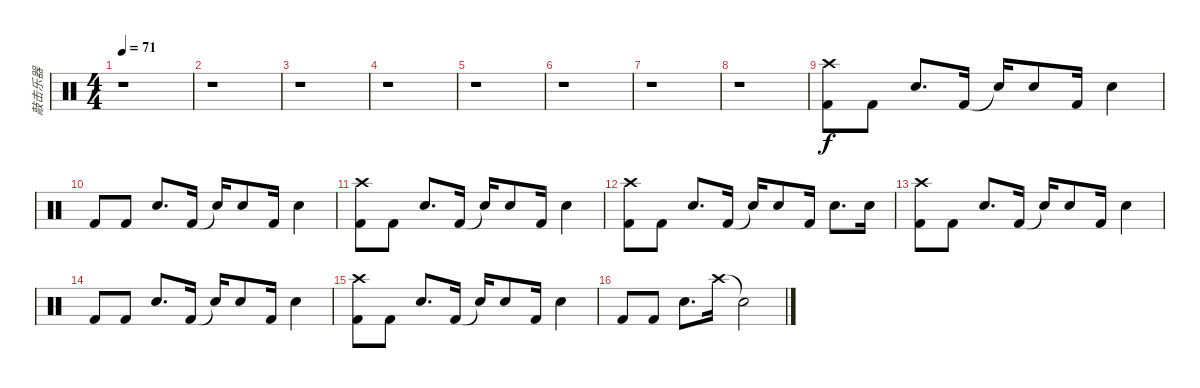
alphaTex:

\track ("敲击乐器" "敲击乐器") {instrument percussion}
\staff {score}
\articulation defaults
\ts (4 4)
\tempo 71
\clef neutral
\ks c
r.1{dy f} |
r.1 |
r.1 |
r.1 |
r.1 |
r.1 |
r.1 |
r.1 |
("Crash high (hit)" "Kick (hit) 2").8 "Kick (hit) 2".8 "Electric Snare (hit)".8{d} "Kick (hit) 2".16 "Snare (hit)"{t}.16 "Electric Snare (hit)".8 "Kick (hit) 2".16 "Electric Snare (hit)".4 |
"Kick (hit) 2".8 "Kick (hit) 2".8 "Electric Snare (hit)".8{d} "Kick (hit) 2".16 "Snare (hit)"{t}.16 "Electric Snare (hit)".8 "Kick (hit) 2".16 "Electric Snare (hit)".4 |
("Crash high (hit)" "Kick (hit) 2").8 "Kick (hit) 2".8 "Electric Snare (hit)".8{d} "Kick (hit) 2".16 "Snare (hit)"{t}.16 "Electric Snare (hit)".8 "Kick (hit) 2".16 "Electric Snare (hit)".4 |
("Crash high (hit)" "Kick (hit) 2").8 "Kick (hit) 2".8 "Electric Snare (hit)".8{d} "Kick (hit) 2".16 "Snare (hit)"{t}.16 "Electric Snare (hit)".8 "Kick (hit) 2".16 "Electric Snare (hit)".8{d} "Electric Snare (hit)".16 |
("Crash high (hit)" "Kick (hit) 2").8 "Kick (hit) 2".8 "Electric Snare (hit)".8{d} "Kick (hit) 2".16 "Snare (hit)"{t}.16 "Electric Snare (hit)".8 "Kick (hit) 2".16 "Electric Snare (hit)".4 |
"Kick (hit) 2".8 "Kick (hit) 2".8 "Electric Snare (hit)".8{d} "Kick (hit) 2".16 "Snare (hit)"{t}.16 "Electric Snare (hit)".8 "Kick (hit) 2".16 "Electric Snare (hit)".4 |
("Crash high (hit)" "Kick (hit) 2").8 "Kick (hit) 2".8 "Electric Snare (hit)".8{d} "Kick (hit) 2".16 "Snare (hit)"{t}.16 "Electric Snare (hit)".8 "Kick (hit) 2".16 "Electric Snare (hit)".4 |
"Kick (hit) 2".8 "Kick (hit) 2".8 "Electric Snare (hit)".8{d} "Crash high (hit)".16 "Snare (hit)"{t}.2
